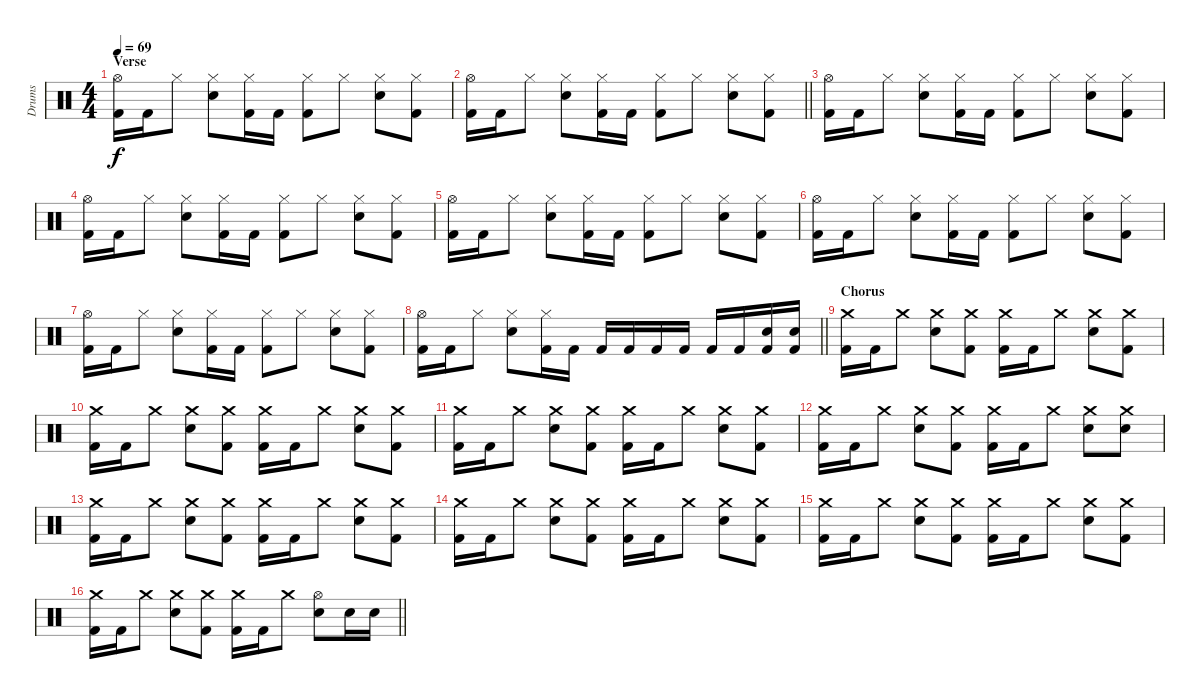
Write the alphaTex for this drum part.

\track ("Drums" "Drums") {instrument percussion}
\staff {score}
\articulation defaults
\ts (4 4)
\section ("" "Verse")
\tempo 69
\clef neutral
\ks c
("Hi-Hat (open)" "Kick (hit) 2").16{dy f} "Kick (hit) 2".16 "Hi-Hat (closed)".8 ("Hi-Hat (closed)" "Electric Snare (hit)").8 ("Hi-Hat (closed)" "Kick (hit) 2").16 "Kick (hit) 2".16 ("Hi-Hat (closed)" "Kick (hit) 2").8 "Hi-Hat (closed)".8 ("Hi-Hat (closed)" "Electric Snare (hit)").8 ("Hi-Hat (closed)" "Kick (hit) 2").8 |
\barLineRight lightlight
("Hi-Hat (open)" "Kick (hit) 2").16 "Kick (hit) 2".16 "Hi-Hat (closed)".8 ("Hi-Hat (closed)" "Electric Snare (hit)").8 ("Hi-Hat (closed)" "Kick (hit) 2").16 "Kick (hit) 2".16 ("Hi-Hat (closed)" "Kick (hit) 2").8 "Hi-Hat (closed)".8 ("Hi-Hat (closed)" "Electric Snare (hit)").8 ("Hi-Hat (closed)" "Kick (hit) 2").8 |
("Hi-Hat (open)" "Kick (hit) 2").16 "Kick (hit) 2".16 "Hi-Hat (closed)".8 ("Hi-Hat (closed)" "Electric Snare (hit)").8 ("Hi-Hat (closed)" "Kick (hit) 2").16 "Kick (hit) 2".16 ("Hi-Hat (closed)" "Kick (hit) 2").8 "Hi-Hat (closed)".8 ("Hi-Hat (closed)" "Electric Snare (hit)").8 ("Hi-Hat (closed)" "Kick (hit) 2").8 |
("Hi-Hat (open)" "Kick (hit) 2").16 "Kick (hit) 2".16 "Hi-Hat (closed)".8 ("Hi-Hat (closed)" "Electric Snare (hit)").8 ("Hi-Hat (closed)" "Kick (hit) 2").16 "Kick (hit) 2".16 ("Hi-Hat (closed)" "Kick (hit) 2").8 "Hi-Hat (closed)".8 ("Hi-Hat (closed)" "Electric Snare (hit)").8 ("Hi-Hat (closed)" "Kick (hit) 2").8 |
("Hi-Hat (open)" "Kick (hit) 2").16 "Kick (hit) 2".16 "Hi-Hat (closed)".8 ("Hi-Hat (closed)" "Electric Snare (hit)").8 ("Hi-Hat (closed)" "Kick (hit) 2").16 "Kick (hit) 2".16 ("Hi-Hat (closed)" "Kick (hit) 2").8 "Hi-Hat (closed)".8 ("Hi-Hat (closed)" "Electric Snare (hit)").8 ("Hi-Hat (closed)" "Kick (hit) 2").8 |
("Hi-Hat (open)" "Kick (hit) 2").16 "Kick (hit) 2".16 "Hi-Hat (closed)".8 ("Hi-Hat (closed)" "Electric Snare (hit)").8 ("Hi-Hat (closed)" "Kick (hit) 2").16 "Kick (hit) 2".16 ("Hi-Hat (closed)" "Kick (hit) 2").8 "Hi-Hat (closed)".8 ("Hi-Hat (closed)" "Electric Snare (hit)").8 ("Hi-Hat (closed)" "Kick (hit) 2").8 |
("Hi-Hat (open)" "Kick (hit) 2").16 "Kick (hit) 2".16 "Hi-Hat (closed)".8 ("Hi-Hat (closed)" "Electric Snare (hit)").8 ("Hi-Hat (closed)" "Kick (hit) 2").16 "Kick (hit) 2".16 ("Hi-Hat (closed)" "Kick (hit) 2").8 "Hi-Hat (closed)".8 ("Hi-Hat (closed)" "Electric Snare (hit)").8 ("Hi-Hat (closed)" "Kick (hit) 2").8 |
\barLineRight lightlight
("Hi-Hat (open)" "Kick (hit) 2").16 "Kick (hit) 2".16 "Hi-Hat (closed)".8 ("Hi-Hat (closed)" "Electric Snare (hit)").8 ("Hi-Hat (closed)" "Kick (hit) 2").16 "Kick (hit) 2".16 "Kick (hit) 2".16 "Kick (hit) 2".16 "Kick (hit) 2".16 "Kick (hit) 2".16 "Kick (hit) 2".16 "Kick (hit) 2".16 ("Electric Snare (hit)" "Kick (hit) 2").16 ("Electric Snare (hit)" "Kick (hit) 2").16 |
\section ("" "Chorus")
("Crash medium (hit)" "Kick (hit) 2").16 "Kick (hit) 2".16 "Crash medium (hit)".8 ("Crash medium (hit)" "Electric Snare (hit)").8 ("Crash medium (hit)" "Kick (hit) 2").8 ("Crash medium (hit)" "Kick (hit) 2").16 "Kick (hit) 2".16 "Crash medium (hit)".8 ("Crash medium (hit)" "Electric Snare (hit)").8 ("Crash medium (hit)" "Kick (hit) 2").8 |
("Crash medium (hit)" "Kick (hit) 2").16 "Kick (hit) 2".16 "Crash medium (hit)".8 ("Crash medium (hit)" "Electric Snare (hit)").8 ("Crash medium (hit)" "Kick (hit) 2").8 ("Crash medium (hit)" "Kick (hit) 2").16 "Kick (hit) 2".16 "Crash medium (hit)".8 ("Crash medium (hit)" "Electric Snare (hit)").8 ("Crash medium (hit)" "Kick (hit) 2").8 |
("Crash medium (hit)" "Kick (hit) 2").16 "Kick (hit) 2".16 "Crash medium (hit)".8 ("Crash medium (hit)" "Electric Snare (hit)").8 ("Crash medium (hit)" "Kick (hit) 2").8 ("Crash medium (hit)" "Kick (hit) 2").16 "Kick (hit) 2".16 "Crash medium (hit)".8 ("Crash medium (hit)" "Electric Snare (hit)").8 ("Crash medium (hit)" "Kick (hit) 2").8 |
("Crash medium (hit)" "Kick (hit) 2").16 "Kick (hit) 2".16 "Crash medium (hit)".8 ("Crash medium (hit)" "Electric Snare (hit)").8 ("Crash medium (hit)" "Kick (hit) 2").8 ("Crash medium (hit)" "Kick (hit) 2").16 "Kick (hit) 2".16 "Crash medium (hit)".8 ("Crash medium (hit)" "Electric Snare (hit)").8 ("Crash medium (hit)" "Electric Snare (hit)").8 |
("Crash medium (hit)" "Kick (hit) 2").16 "Kick (hit) 2".16 "Crash medium (hit)".8 ("Crash medium (hit)" "Electric Snare (hit)").8 ("Crash medium (hit)" "Kick (hit) 2").8 ("Crash medium (hit)" "Kick (hit) 2").16 "Kick (hit) 2".16 "Crash medium (hit)".8 ("Crash medium (hit)" "Electric Snare (hit)").8 ("Crash medium (hit)" "Kick (hit) 2").8 |
("Crash medium (hit)" "Kick (hit) 2").16 "Kick (hit) 2".16 "Crash medium (hit)".8 ("Crash medium (hit)" "Electric Snare (hit)").8 ("Crash medium (hit)" "Kick (hit) 2").8 ("Crash medium (hit)" "Kick (hit) 2").16 "Kick (hit) 2".16 "Crash medium (hit)".8 ("Crash medium (hit)" "Electric Snare (hit)").8 ("Crash medium (hit)" "Kick (hit) 2").8 |
("Crash medium (hit)" "Kick (hit) 2").16 "Kick (hit) 2".16 "Crash medium (hit)".8 ("Crash medium (hit)" "Electric Snare (hit)").8 ("Crash medium (hit)" "Kick (hit) 2").8 ("Crash medium (hit)" "Kick (hit) 2").16 "Kick (hit) 2".16 "Crash medium (hit)".8 ("Crash medium (hit)" "Electric Snare (hit)").8 ("Crash medium (hit)" "Kick (hit) 2").8 |
\barLineRight lightlight
("Crash medium (hit)" "Kick (hit) 2").16 "Kick (hit) 2".16 "Crash medium (hit)".8 ("Crash medium (hit)" "Electric Snare (hit)").8 ("Crash medium (hit)" "Kick (hit) 2").8 ("Crash medium (hit)" "Kick (hit) 2").16 "Kick (hit) 2".16 "Crash medium (hit)".8 ("Hi-Hat (open)" "Electric Snare (hit)").8 "Electric Snare (hit)".16 "Electric Snare (hit)".16
